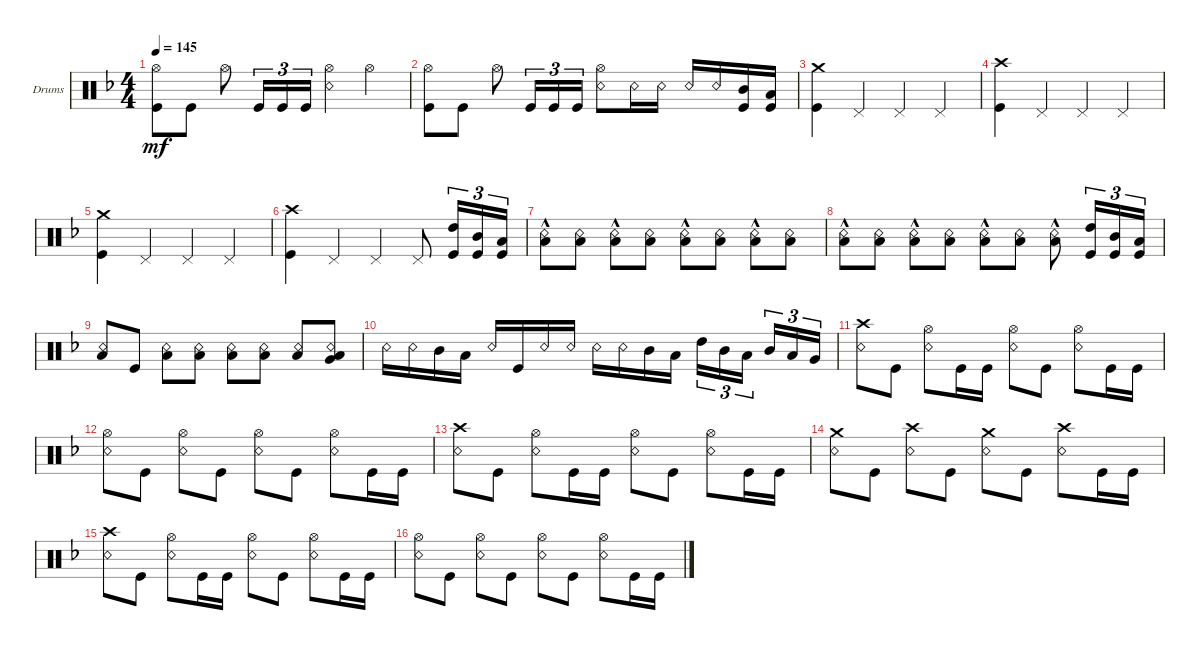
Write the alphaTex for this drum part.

\defaultSystemsLayout 4
\bracketExtendMode groupsimilarinstruments
\firstSystemTrackNameOrientation horizontal
\otherSystemsTrackNameOrientation horizontal
\track ("Drumkit" "Drums") {instrument percussion}
\staff {score}
\articulation defaults
\ts (4 4)
\tempo 145
\clef neutral
\ks dminor
("Kick (hit)" "Hi-Hat (open)").8{dy mf} "Kick (hit)".8 "Hi-Hat (open)".8 "Kick (hit)".16{tu (3 2)} "Kick (hit)".16{tu (3 2)} "Kick (hit)".16{tu (3 2)} ("Hi-Hat (open)" "Snare (rim shot)").4 "Hi-Hat (open)".4 |
("Kick (hit)" "Hi-Hat (open)").8 "Kick (hit)".8 "Hi-Hat (open)".8 "Kick (hit)".16{tu (3 2)} "Kick (hit)".16{tu (3 2)} "Kick (hit)".16{tu (3 2)} ("Hi-Hat (open)" "Snare (rim shot)").8 "Snare (rim shot)".16 "Snare (rim shot)".16 "Snare (rim shot)".16 "Snare (rim shot)".16 ("Mid Tom (hit)" "Kick (hit)").16 ("Low Tom (hit)" "Kick (hit)").16 |
("Crash medium (hit)" "Kick (hit)").4 "Pedal Hi-Hat (hit)".4 "Pedal Hi-Hat (hit)".4 "Pedal Hi-Hat (hit)".4 |
("Kick (hit)" "Crash high (hit)").4 "Pedal Hi-Hat (hit)".4 "Pedal Hi-Hat (hit)".4 "Pedal Hi-Hat (hit)".4 |
("Crash medium (hit)" "Kick (hit)").4 "Pedal Hi-Hat (hit)".4 "Pedal Hi-Hat (hit)".4 "Pedal Hi-Hat (hit)".4 |
("Kick (hit)" "Crash high (hit)").4 "Pedal Hi-Hat (hit)".4 "Pedal Hi-Hat (hit)".4 "Pedal Hi-Hat (hit)".8 ("High Tom (hit)" "Kick (hit)").16{tu (3 2)} ("Mid Tom (hit)" "Kick (hit)").16{tu (3 2)} ("Low Tom (hit)" "Kick (hit)").16{tu (3 2)} |
("Low Tom (hit)"{hac} "Snare (rim shot)"{hac}).8 ("Low Tom (hit)" "Snare (rim shot)").8 ("Low Tom (hit)"{hac} "Snare (rim shot)"{hac}).8 ("Low Tom (hit)" "Snare (rim shot)").8 ("Low Tom (hit)"{hac} "Snare (rim shot)"{hac}).8 ("Low Tom (hit)" "Snare (rim shot)").8 ("Low Tom (hit)"{hac} "Snare (rim shot)"{hac}).8 ("Snare (rim shot)" "Low Tom (hit)").8 |
("Low Tom (hit)"{hac} "Snare (rim shot)"{hac}).8 ("Low Tom (hit)" "Snare (rim shot)").8 ("Low Tom (hit)"{hac} "Snare (rim shot)"{hac}).8 ("Low Tom (hit)" "Snare (rim shot)").8 ("Low Tom (hit)"{hac} "Snare (rim shot)"{hac}).8 ("Low Tom (hit)" "Snare (rim shot)").8 ("Low Tom (hit)"{hac} "Snare (rim shot)"{hac}).8 ("High Tom (hit)" "Kick (hit)").16{tu (3 2)} ("Mid Tom (hit)" "Kick (hit)").16{tu (3 2)} ("Low Tom (hit)" "Kick (hit)").16{tu (3 2)} |
("Snare (rim shot)" "Low Tom (hit)").8 "Kick (hit)".8 ("Snare (rim shot)" "Low Tom (hit)").8 ("Low Tom (hit)" "Snare (rim shot)").8 ("Low Tom (hit)" "Snare (rim shot)").8 ("Low Tom (hit)" "Snare (rim shot)").8 ("Low Tom (hit)" "Snare (rim shot)").8 ("Snare (rim shot)" "Very Low Tom (hit)" "Low Tom (hit)").8 |
"Snare (rim shot)".16 "Snare (rim shot)".16 "Mid Tom (hit)".16 "Low Tom (hit)".16 "Snare (rim shot)".16 "Kick (hit)".16 "Snare (rim shot)".16 "Snare (rim shot)".16 "Snare (rim shot)".16 "Snare (rim shot)".16 "Mid Tom (hit)".16 "Low Tom (hit)".16 "High Tom (hit)".16{tu (3 2)} "Mid Tom (hit)".16{tu (3 2)} "Low Tom (hit)".16{tu (3 2)} "Mid Tom (hit)".16{tu (3 2)} "Low Tom (hit)".16{tu (3 2)} "Very Low Tom (hit)".16{tu (3 2)} |
("Crash high (hit)" "Snare (rim shot)").8 "Kick (hit)".8 ("Hi-Hat (open)" "Snare (rim shot)").8 "Kick (hit)".16 "Kick (hit)".16 ("Snare (rim shot)" "Hi-Hat (open)").8 "Kick (hit)".8 ("Snare (rim shot)" "Hi-Hat (open)").8 "Kick (hit)".16 "Kick (hit)".16 |
("Snare (rim shot)" "Hi-Hat (open)").8 "Kick (hit)".8 ("Snare (rim shot)" "Hi-Hat (open)").8 "Kick (hit)".8 ("Snare (rim shot)" "Hi-Hat (open)").8 "Kick (hit)".8 ("Snare (rim shot)" "Hi-Hat (open)").8 "Kick (hit)".16 "Kick (hit)".16 |
("Crash high (hit)" "Snare (rim shot)").8 "Kick (hit)".8 ("Hi-Hat (open)" "Snare (rim shot)").8 "Kick (hit)".16 "Kick (hit)".16 ("Snare (rim shot)" "Hi-Hat (open)").8 "Kick (hit)".8 ("Snare (rim shot)" "Hi-Hat (open)").8 "Kick (hit)".16 "Kick (hit)".16 |
("Snare (rim shot)" "Crash medium (hit)").8 "Kick (hit)".8 ("Snare (rim shot)" "Crash high (hit)").8 "Kick (hit)".8 ("Snare (rim shot)" "Crash medium (hit)").8 "Kick (hit)".8 ("Snare (rim shot)" "Crash high (hit)").8 "Kick (hit)".16 "Kick (hit)".16 |
("Crash high (hit)" "Snare (rim shot)").8 "Kick (hit)".8 ("Hi-Hat (open)" "Snare (rim shot)").8 "Kick (hit)".16 "Kick (hit)".16 ("Snare (rim shot)" "Hi-Hat (open)").8 "Kick (hit)".8 ("Snare (rim shot)" "Hi-Hat (open)").8 "Kick (hit)".16 "Kick (hit)".16 |
("Snare (rim shot)" "Hi-Hat (open)").8 "Kick (hit)".8 ("Snare (rim shot)" "Hi-Hat (open)").8 "Kick (hit)".8 ("Snare (rim shot)" "Hi-Hat (open)").8 "Kick (hit)".8 ("Snare (rim shot)" "Hi-Hat (open)").8 "Kick (hit)".16 "Kick (hit)".16
